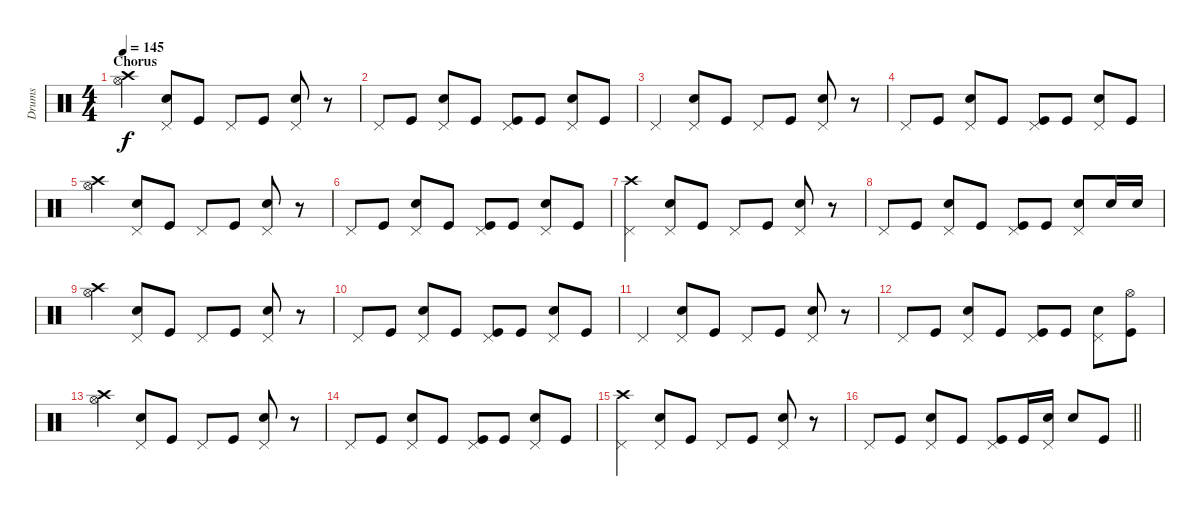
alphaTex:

\track ("Drums" "Drums") {instrument percussion}
\staff {score}
\articulation defaults
\ts (4 4)
\section ("" "Chorus")
\tempo 145
\clef neutral
\ks c
("Crash high (hit)" "Hi-Hat (open)").4{dy f} ("Pedal Hi-Hat (hit)" "Snare (hit) 2").8 "Kick (hit)".8 "Pedal Hi-Hat (hit)".8 "Kick (hit)".8 ("Pedal Hi-Hat (hit)" "Snare (hit) 2").8 r.8 |
"Pedal Hi-Hat (hit)".8 "Kick (hit)".8 ("Pedal Hi-Hat (hit)" "Snare (hit) 2").8 "Kick (hit)".8 ("Pedal Hi-Hat (hit)" "Kick (hit)").8 "Kick (hit)".8 ("Pedal Hi-Hat (hit)" "Snare (hit) 2").8 "Kick (hit)".8 |
"Pedal Hi-Hat (hit)".4 ("Pedal Hi-Hat (hit)" "Snare (hit) 2").8 "Kick (hit)".8 "Pedal Hi-Hat (hit)".8 "Kick (hit)".8 ("Pedal Hi-Hat (hit)" "Snare (hit) 2").8 r.8 |
"Pedal Hi-Hat (hit)".8 "Kick (hit)".8 ("Pedal Hi-Hat (hit)" "Snare (hit) 2").8 "Kick (hit)".8 ("Pedal Hi-Hat (hit)" "Kick (hit)").8 "Kick (hit)".8 ("Pedal Hi-Hat (hit)" "Snare (hit) 2").8 "Kick (hit)".8 |
("Crash high (hit)" "Hi-Hat (open)").4 ("Pedal Hi-Hat (hit)" "Snare (hit) 2").8 "Kick (hit)".8 "Pedal Hi-Hat (hit)".8 "Kick (hit)".8 ("Pedal Hi-Hat (hit)" "Snare (hit) 2").8 r.8 |
"Pedal Hi-Hat (hit)".8 "Kick (hit)".8 ("Pedal Hi-Hat (hit)" "Snare (hit) 2").8 "Kick (hit)".8 ("Pedal Hi-Hat (hit)" "Kick (hit)").8 "Kick (hit)".8 ("Pedal Hi-Hat (hit)" "Snare (hit) 2").8 "Kick (hit)".8 |
("Crash high (hit)" "Pedal Hi-Hat (hit)").4 ("Pedal Hi-Hat (hit)" "Snare (hit) 2").8 "Kick (hit)".8 "Pedal Hi-Hat (hit)".8 "Kick (hit)".8 ("Pedal Hi-Hat (hit)" "Snare (hit) 2").8 r.8 |
"Pedal Hi-Hat (hit)".8 "Kick (hit)".8 ("Pedal Hi-Hat (hit)" "Snare (hit) 2").8 "Kick (hit)".8 ("Pedal Hi-Hat (hit)" "Kick (hit)").8 "Kick (hit)".8 ("Pedal Hi-Hat (hit)" "Snare (hit) 2").8 "Snare (hit) 2".16 "Snare (hit) 2".16 |
("Crash high (hit)" "Hi-Hat (open)").4 ("Pedal Hi-Hat (hit)" "Snare (hit) 2").8 "Kick (hit)".8 "Pedal Hi-Hat (hit)".8 "Kick (hit)".8 ("Pedal Hi-Hat (hit)" "Snare (hit) 2").8 r.8 |
"Pedal Hi-Hat (hit)".8 "Kick (hit)".8 ("Pedal Hi-Hat (hit)" "Snare (hit) 2").8 "Kick (hit)".8 ("Pedal Hi-Hat (hit)" "Kick (hit)").8 "Kick (hit)".8 ("Pedal Hi-Hat (hit)" "Snare (hit) 2").8 "Kick (hit)".8 |
"Pedal Hi-Hat (hit)".4 ("Pedal Hi-Hat (hit)" "Snare (hit) 2").8 "Kick (hit)".8 "Pedal Hi-Hat (hit)".8 "Kick (hit)".8 ("Pedal Hi-Hat (hit)" "Snare (hit) 2").8 r.8 |
"Pedal Hi-Hat (hit)".8 "Kick (hit)".8 ("Pedal Hi-Hat (hit)" "Snare (hit) 2").8 "Kick (hit)".8 ("Pedal Hi-Hat (hit)" "Kick (hit)").8 "Kick (hit)".8 ("Pedal Hi-Hat (hit)" "Snare (hit) 2").8 ("Hi-Hat (open)" "Kick (hit)").8 |
("Crash high (hit)" "Hi-Hat (open)").4 ("Pedal Hi-Hat (hit)" "Snare (hit) 2").8 "Kick (hit)".8 "Pedal Hi-Hat (hit)".8 "Kick (hit)".8 ("Pedal Hi-Hat (hit)" "Snare (hit) 2").8 r.8 |
"Pedal Hi-Hat (hit)".8 "Kick (hit)".8 ("Pedal Hi-Hat (hit)" "Snare (hit) 2").8 "Kick (hit)".8 ("Pedal Hi-Hat (hit)" "Kick (hit)").8 "Kick (hit)".8 ("Pedal Hi-Hat (hit)" "Snare (hit) 2").8 "Kick (hit)".8 |
("Crash high (hit)" "Pedal Hi-Hat (hit)").4 ("Pedal Hi-Hat (hit)" "Snare (hit) 2").8 "Kick (hit)".8 "Pedal Hi-Hat (hit)".8 "Kick (hit)".8 ("Pedal Hi-Hat (hit)" "Snare (hit) 2").8 r.8 |
\barLineRight lightlight "Pedal Hi-Hat (hit)".8 "Kick (hit)".8
("Pedal Hi-Hat (hit)" "Snare (hit) 2").8 "Kick (hit)".8 ("Pedal Hi-Hat (hit)" "Kick (hit)").8 "Kick (hit)".16 ("Pedal Hi-Hat (hit)" "Snare (hit) 2").16 "Snare (hit) 2".8 "Kick (hit)".8
